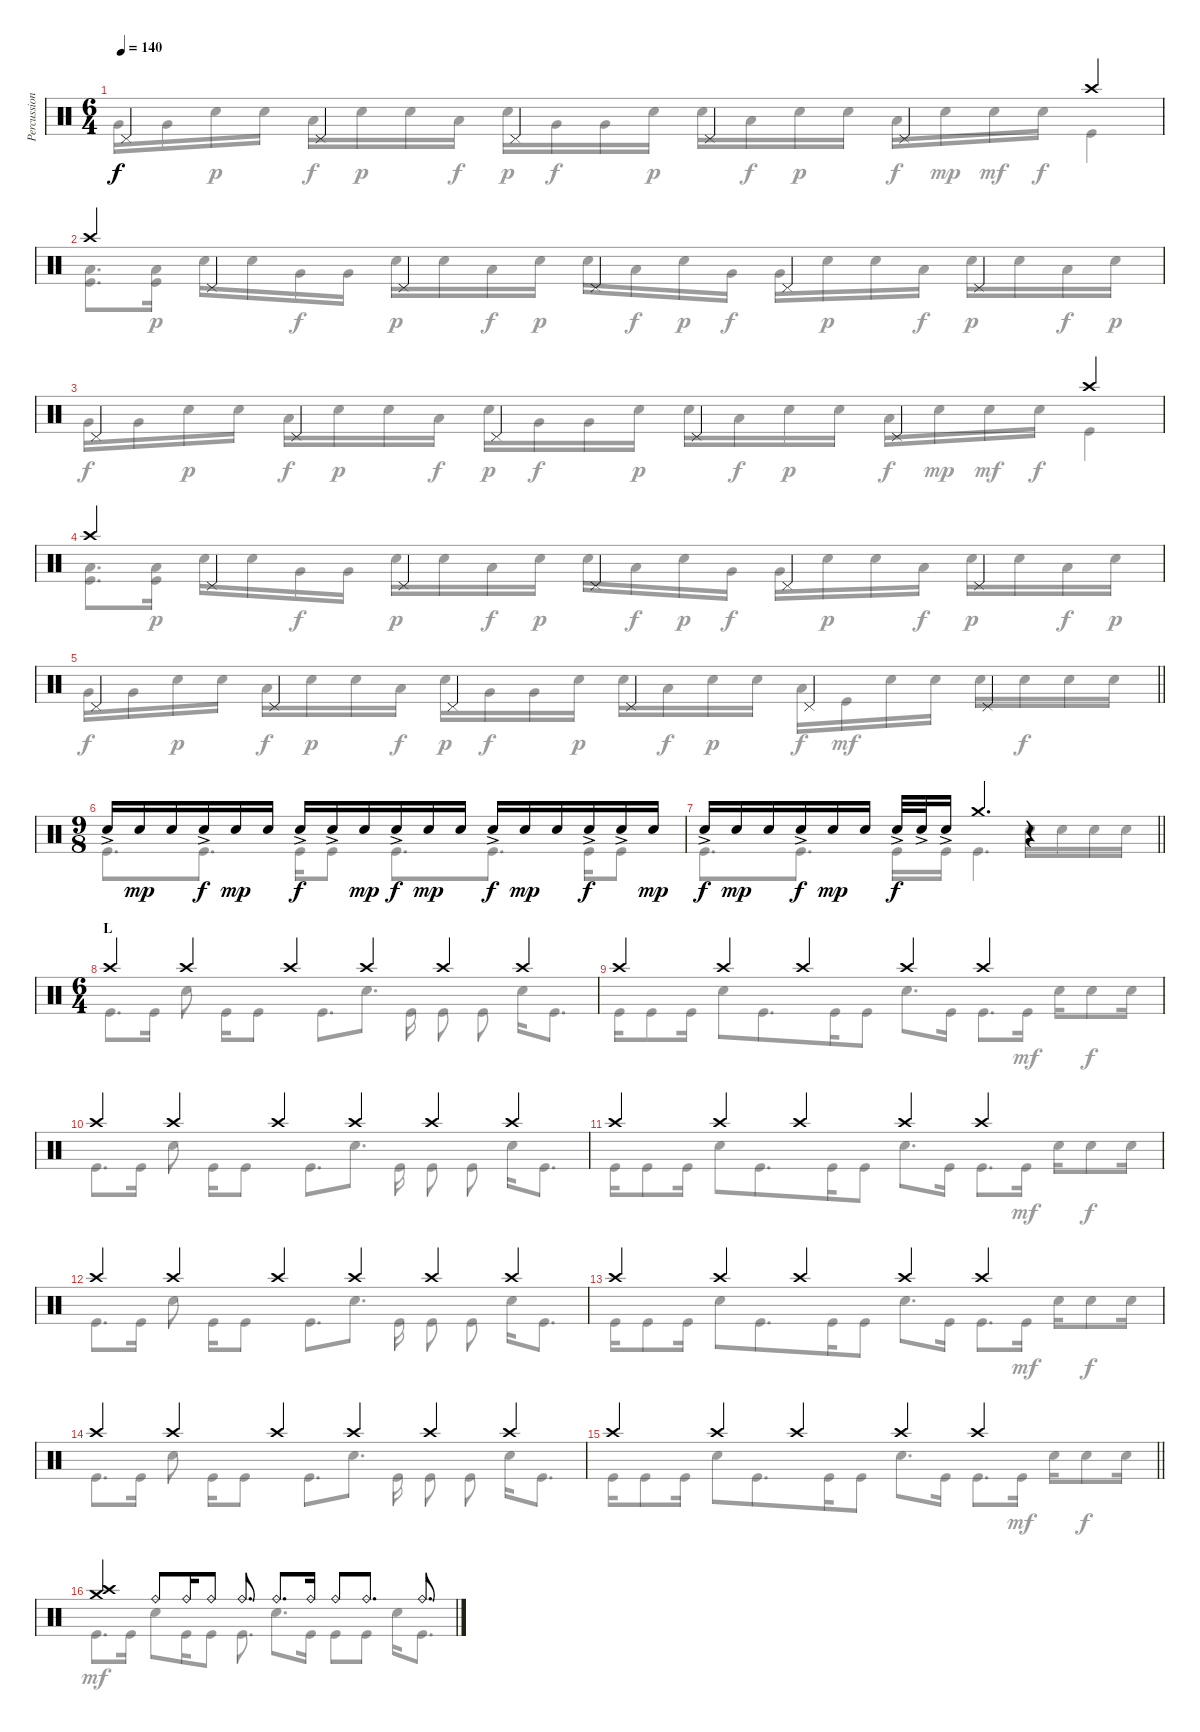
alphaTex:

\track ("Percussions" "Percussion") {instrument percussion}
\staff {score}
\articulation defaults
\voice
\ts (6 4)
\tempo 140
\clef neutral
\ks c "Pedal Hi-Hat (hit)".4{dy f} "Pedal Hi-Hat (hit)".4 "Pedal Hi-Hat (hit)".4 "Pedal Hi-Hat (hit)".4 "Pedal Hi-Hat (hit)".4 "Crash high (hit)".4
|
"Crash high (hit)".4 "Pedal Hi-Hat (hit)".4 "Pedal Hi-Hat (hit)".4 "Pedal Hi-Hat (hit)".4 "Pedal Hi-Hat (hit)".4 "Pedal Hi-Hat (hit)".4 |
"Pedal Hi-Hat (hit)".4 "Pedal Hi-Hat (hit)".4 "Pedal Hi-Hat (hit)".4 "Pedal Hi-Hat (hit)".4 "Pedal Hi-Hat (hit)".4 "Crash high (hit)".4 |
"Crash high (hit)".4 "Pedal Hi-Hat (hit)".4 "Pedal Hi-Hat (hit)".4 "Pedal Hi-Hat (hit)".4 "Pedal Hi-Hat (hit)".4 "Pedal Hi-Hat (hit)".4 |
\barLineRight lightlight "Pedal Hi-Hat (hit)".4 "Pedal Hi-Hat (hit)".4 "Pedal Hi-Hat (hit)".4 "Pedal Hi-Hat (hit)".4 "Pedal Hi-Hat (hit)".4 "Pedal Hi-Hat (hit)".4
|
\ts (9 8)
\section ("" "")
"Snare (hit) 2"{ac}.16 "Snare (hit) 2".16{dy mp} "Snare (hit) 2".16 "Snare (hit) 2"{ac}.16{dy f} "Snare (hit) 2".16{dy mp} "Snare (hit) 2".16 "Snare (hit) 2"{ac}.16{dy f} "Snare (hit) 2"{ac}.16 "Snare (hit) 2".16{dy mp} "Snare (hit) 2"{ac}.16{dy f} "Snare (hit) 2".16{dy mp} "Snare (hit) 2".16 "Snare (hit) 2"{ac}.16{dy f} "Snare (hit) 2".16{dy mp} "Snare (hit) 2".16 "Snare (hit) 2"{ac}.16{dy f} "Snare (hit) 2"{ac}.16 "Snare (hit) 2".16{dy mp} |
\barLineRight lightlight "Snare (hit) 2"{ac}.16{dy f} "Snare (hit) 2".16{dy mp} "Snare (hit) 2".16 "Snare (hit) 2"{ac}.16{dy f} "Snare (hit) 2".16{dy mp} "Snare (hit) 2".16 "Snare (hit) 2"{ac}.32{dy f} "Snare (hit) 2"{ac}.32 "Snare (hit) 2"{ac}.16 "Crash medium (hit)".4{d}
r.4 |
\ts (6 4)
\section ("" "L")
"Crash high (hit)".4 "Crash high (hit)".4 "Crash high (hit)".4 "Crash high (hit)".4 "Crash high (hit)".4 "Crash high (hit)".4 |
"Crash high (hit)".4 "Crash high (hit)".4 "Crash high (hit)".4 "Crash high (hit)".4 "Crash high (hit)".2 |
"Crash high (hit)".4 "Crash high (hit)".4 "Crash high (hit)".4 "Crash high (hit)".4 "Crash high (hit)".4 "Crash high (hit)".4 |
"Crash high (hit)".4 "Crash high (hit)".4 "Crash high (hit)".4 "Crash high (hit)".4 "Crash high (hit)".2 |
"Crash high (hit)".4 "Crash high (hit)".4 "Crash high (hit)".4 "Crash high (hit)".4 "Crash high (hit)".4 "Crash high (hit)".4 |
"Crash high (hit)".4 "Crash high (hit)".4 "Crash high (hit)".4 "Crash high (hit)".4 "Crash high (hit)".2 |
"Crash high (hit)".4 "Crash high (hit)".4 "Crash high (hit)".4 "Crash high (hit)".4 "Crash high (hit)".4 "Crash high (hit)".4 |
\barLineRight lightlight "Crash high (hit)".4 "Crash high (hit)".4 "Crash high (hit)".4 "Crash high (hit)".4 "Crash high (hit)".2
|
\section ("" "")
("Crash medium (hit)" "Crash high (hit)").4 "Ride (bell)".8 "Ride (bell)".16 "Ride (bell)".8 "Ride (bell)".8{d} "Ride (bell)".8{d} "Ride (bell)".16 "Ride (bell)".8 "Ride (bell)".8{d} "Ride (bell)".8{d}
\voice
\clef neutral
\ottava regular
\simile none
\ks c "Very Low Tom (hit)".16{dy f} "Very Low Tom (hit)".16 "Snare (hit) 2".16{dy p} "Snare (hit) 2".16 "Low Floor Tom (hit)".16{dy f} "Snare (hit) 2".16{dy p} "Snare (hit) 2".16 "Low Floor Tom (hit)".16{dy f} "Snare (hit) 2".16{dy p} "Very Low Tom (hit)".16{dy f} "Very Low Tom (hit)".16 "Snare (hit) 2".16{dy p} "Snare (hit) 2".16 "Low Floor Tom (hit)".16{dy f} "Snare (hit) 2".16{dy p} "Snare (hit) 2".16 "Low Floor Tom (hit)".16{dy f} "Snare (hit) 2".16{dy mp} "Snare (hit) 2".16{dy mf} "Snare (hit) 2".16{dy f} "Kick (hit)".4
|
("Low Tom (hit)" "Kick (hit)").8{d} ("Low Tom (hit)" "Kick (hit)").16{dy p} "Snare (hit) 2".16 "Snare (hit) 2".16 "Very Low Tom (hit)".16{dy f} "Very Low Tom (hit)".16 "Snare (hit) 2".16{dy p} "Snare (hit) 2".16 "Low Floor Tom (hit)".16{dy f} "Snare (hit) 2".16{dy p} "Snare (hit) 2".16 "Low Floor Tom (hit)".16{dy f} "Snare (hit) 2".16{dy p} "Very Low Tom (hit)".16{dy f} "Very Low Tom (hit)".16 "Snare (hit) 2".16{dy p} "Snare (hit) 2".16 "Low Floor Tom (hit)".16{dy f} "Snare (hit) 2".16{dy p} "Snare (hit) 2".16 "Low Floor Tom (hit)".16{dy f} "Snare (hit) 2".16{dy p} |
"Very Low Tom (hit)".16{dy f} "Very Low Tom (hit)".16 "Snare (hit) 2".16{dy p} "Snare (hit) 2".16 "Low Floor Tom (hit)".16{dy f} "Snare (hit) 2".16{dy p} "Snare (hit) 2".16 "Low Floor Tom (hit)".16{dy f} "Snare (hit) 2".16{dy p} "Very Low Tom (hit)".16{dy f} "Very Low Tom (hit)".16 "Snare (hit) 2".16{dy p} "Snare (hit) 2".16 "Low Floor Tom (hit)".16{dy f} "Snare (hit) 2".16{dy p} "Snare (hit) 2".16 "Low Floor Tom (hit)".16{dy f} "Snare (hit) 2".16{dy mp} "Snare (hit) 2".16{dy mf} "Snare (hit) 2".16{dy f} "Kick (hit)".4 |
("Low Tom (hit)" "Kick (hit)").8{d} ("Low Tom (hit)" "Kick (hit)").16{dy p} "Snare (hit) 2".16 "Snare (hit) 2".16 "Very Low Tom (hit)".16{dy f} "Very Low Tom (hit)".16 "Snare (hit) 2".16{dy p} "Snare (hit) 2".16 "Low Floor Tom (hit)".16{dy f} "Snare (hit) 2".16{dy p} "Snare (hit) 2".16 "Low Floor Tom (hit)".16{dy f} "Snare (hit) 2".16{dy p} "Very Low Tom (hit)".16{dy f} "Very Low Tom (hit)".16 "Snare (hit) 2".16{dy p} "Snare (hit) 2".16 "Low Floor Tom (hit)".16{dy f} "Snare (hit) 2".16{dy p} "Snare (hit) 2".16 "Low Floor Tom (hit)".16{dy f} "Snare (hit) 2".16{dy p} |
\barLineRight lightlight "Very Low Tom (hit)".16{dy f} "Very Low Tom (hit)".16 "Snare (hit) 2".16{dy p} "Snare (hit) 2".16 "Low Floor Tom (hit)".16{dy f} "Snare (hit) 2".16{dy p} "Snare (hit) 2".16 "Low Floor Tom (hit)".16{dy f} "Snare (hit) 2".16{dy p} "Very Low Tom (hit)".16{dy f} "Very Low Tom (hit)".16 "Snare (hit) 2".16{dy p} "Snare (hit) 2".16 "Low Floor Tom (hit)".16{dy f} "Snare (hit) 2".16{dy p} "Snare (hit) 2".16 "Low Floor Tom (hit)".16{dy f} "Kick (hit)".16{dy mf} "Snare (hit) 2".16 "Snare (hit) 2".16 "Snare (hit) 2".16 "Snare (hit) 2".16{dy f} "Snare (hit) 2".16 "Snare (hit) 2".16
|
"Kick (hit)".8{d} "Kick (hit)".8{d} "Kick (hit)".16 "Kick (hit)".8{beam split} "Kick (hit)".8{d beam merge} "Kick (hit)".8{d beam split} "Kick (hit)".16 "Kick (hit)".8 |
\barLineRight lightlight "Kick (hit)".8{d} "Kick (hit)".8{d} "Kick (hit)".16 "Kick (hit)".16 "Kick (hit)".4{d} "Snare (hit) 2".16 "Snare (hit) 2".16 "Snare (hit) 2".16 "Snare (hit) 2".16
|
"Kick (hit)".8{d} "Kick (hit)".16{beam split} "Snare (hit) 2".8{beam split} "Kick (hit)".16 "Kick (hit)".8{beam split} "Kick (hit)".8{d beam merge} "Snare (hit) 2".8{d beam split} "Kick (hit)".16 "Kick (hit)".8{beam split} "Kick (hit)".8 "Snare (hit) 2".16 "Kick (hit)".8{d} |
"Kick (hit)".16{beam merge} "Kick (hit)".8{beam merge} "Kick (hit)".16{beam split} "Snare (hit) 2".8 "Kick (hit)".8{d beam merge} "Kick (hit)".16 "Kick (hit)".8 "Snare (hit) 2".8{d} "Kick (hit)".16{beam split} "Kick (hit)".8{d} "Kick (hit)".16{dy mf beam split} "Snare (hit) 2".16 "Snare (hit) 2".8{dy f} "Snare (hit) 2".16 |
"Kick (hit)".8{d} "Kick (hit)".16{beam split} "Snare (hit) 2".8{beam split} "Kick (hit)".16 "Kick (hit)".8{beam split} "Kick (hit)".8{d beam merge} "Snare (hit) 2".8{d beam split} "Kick (hit)".16 "Kick (hit)".8{beam split} "Kick (hit)".8 "Snare (hit) 2".16 "Kick (hit)".8{d} |
"Kick (hit)".16{beam merge} "Kick (hit)".8{beam merge} "Kick (hit)".16{beam split} "Snare (hit) 2".8 "Kick (hit)".8{d beam merge} "Kick (hit)".16 "Kick (hit)".8 "Snare (hit) 2".8{d} "Kick (hit)".16{beam split} "Kick (hit)".8{d} "Kick (hit)".16{dy mf beam split} "Snare (hit) 2".16 "Snare (hit) 2".8{dy f} "Snare (hit) 2".16 |
"Kick (hit)".8{d} "Kick (hit)".16{beam split} "Snare (hit) 2".8{beam split} "Kick (hit)".16 "Kick (hit)".8{beam split} "Kick (hit)".8{d beam merge} "Snare (hit) 2".8{d beam split} "Kick (hit)".16 "Kick (hit)".8{beam split} "Kick (hit)".8 "Snare (hit) 2".16 "Kick (hit)".8{d} |
"Kick (hit)".16{beam merge} "Kick (hit)".8{beam merge} "Kick (hit)".16{beam split} "Snare (hit) 2".8 "Kick (hit)".8{d beam merge} "Kick (hit)".16 "Kick (hit)".8 "Snare (hit) 2".8{d} "Kick (hit)".16{beam split} "Kick (hit)".8{d} "Kick (hit)".16{dy mf beam split} "Snare (hit) 2".16 "Snare (hit) 2".8{dy f} "Snare (hit) 2".16 |
"Kick (hit)".8{d} "Kick (hit)".16{beam split} "Snare (hit) 2".8{beam split} "Kick (hit)".16 "Kick (hit)".8{beam split} "Kick (hit)".8{d beam merge} "Snare (hit) 2".8{d beam split} "Kick (hit)".16 "Kick (hit)".8{beam split} "Kick (hit)".8 "Snare (hit) 2".16 "Kick (hit)".8{d} |
\barLineRight lightlight "Kick (hit)".16{beam merge} "Kick (hit)".8{beam merge} "Kick (hit)".16{beam split} "Snare (hit) 2".8 "Kick (hit)".8{d beam merge} "Kick (hit)".16 "Kick (hit)".8 "Snare (hit) 2".8{d} "Kick (hit)".16{beam split} "Kick (hit)".8{d} "Kick (hit)".16{dy mf beam split} "Snare (hit) 2".16 "Snare (hit) 2".8{dy f} "Snare (hit) 2".16
|
"Kick (hit)".8{d dy mf} "Kick (hit)".16 "Snare (hit) 2".8 "Kick (hit)".16 "Kick (hit)".8 "Kick (hit)".8{d} "Snare (hit) 2".8{d} "Kick (hit)".16 "Kick (hit)".8 "Kick (hit)".8 "Snare (hit) 2".16 "Kick (hit)".8{d}
